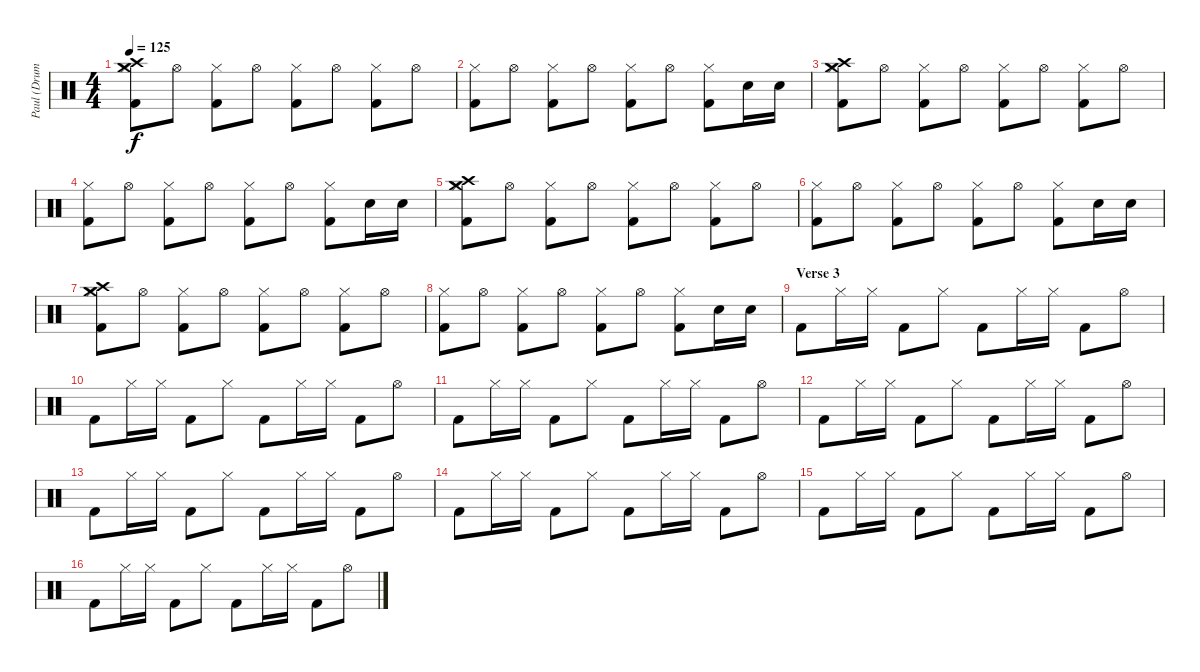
\track ("Paul (Drums)" "Paul (Drum") {instrument percussion}
\staff {score}
\articulation defaults
\ts (4 4)
\tempo 125
\clef neutral
\ks c
("Crash high (hit)" "Crash medium (hit)" "Hi-Hat (closed)" "Kick (hit) 2").8{dy f} "Hi-Hat (open)".8 ("Hi-Hat (closed)" "Kick (hit) 2").8 "Hi-Hat (open)".8 ("Hi-Hat (closed)" "Kick (hit) 2").8 "Hi-Hat (open)".8 ("Hi-Hat (closed)" "Kick (hit) 2").8 "Hi-Hat (open)".8 |
("Hi-Hat (closed)" "Kick (hit) 2").8 "Hi-Hat (open)".8 ("Hi-Hat (closed)" "Kick (hit) 2").8 "Hi-Hat (open)".8 ("Hi-Hat (closed)" "Kick (hit) 2").8 "Hi-Hat (open)".8 ("Hi-Hat (closed)" "Kick (hit) 2").8 "Electric Snare (hit)".16 "Electric Snare (hit)".16 |
("Crash high (hit)" "Crash medium (hit)" "Hi-Hat (closed)" "Kick (hit) 2").8 "Hi-Hat (open)".8 ("Hi-Hat (closed)" "Kick (hit) 2").8 "Hi-Hat (open)".8 ("Hi-Hat (closed)" "Kick (hit) 2").8 "Hi-Hat (open)".8 ("Hi-Hat (closed)" "Kick (hit) 2").8 "Hi-Hat (open)".8 |
("Hi-Hat (closed)" "Kick (hit) 2").8 "Hi-Hat (open)".8 ("Hi-Hat (closed)" "Kick (hit) 2").8 "Hi-Hat (open)".8 ("Hi-Hat (closed)" "Kick (hit) 2").8 "Hi-Hat (open)".8 ("Hi-Hat (closed)" "Kick (hit) 2").8 "Electric Snare (hit)".16 "Electric Snare (hit)".16 |
("Crash high (hit)" "Crash medium (hit)" "Hi-Hat (closed)" "Kick (hit) 2").8 "Hi-Hat (open)".8 ("Hi-Hat (closed)" "Kick (hit) 2").8 "Hi-Hat (open)".8 ("Hi-Hat (closed)" "Kick (hit) 2").8 "Hi-Hat (open)".8 ("Hi-Hat (closed)" "Kick (hit) 2").8 "Hi-Hat (open)".8 |
("Hi-Hat (closed)" "Kick (hit) 2").8 "Hi-Hat (open)".8 ("Hi-Hat (closed)" "Kick (hit) 2").8 "Hi-Hat (open)".8 ("Hi-Hat (closed)" "Kick (hit) 2").8 "Hi-Hat (open)".8 ("Hi-Hat (closed)" "Kick (hit) 2").8 "Electric Snare (hit)".16 "Electric Snare (hit)".16 |
("Crash high (hit)" "Crash medium (hit)" "Hi-Hat (closed)" "Kick (hit) 2").8 "Hi-Hat (open)".8 ("Hi-Hat (closed)" "Kick (hit) 2").8 "Hi-Hat (open)".8 ("Hi-Hat (closed)" "Kick (hit) 2").8 "Hi-Hat (open)".8 ("Hi-Hat (closed)" "Kick (hit) 2").8 "Hi-Hat (open)".8 |
("Hi-Hat (closed)" "Kick (hit) 2").8 "Hi-Hat (open)".8 ("Hi-Hat (closed)" "Kick (hit) 2").8 "Hi-Hat (open)".8 ("Hi-Hat (closed)" "Kick (hit) 2").8 "Hi-Hat (open)".8 ("Hi-Hat (closed)" "Kick (hit) 2").8 "Electric Snare (hit)".16 "Electric Snare (hit)".16 |
\section ("" "Verse 3")
"Kick (hit) 2".8 "Hi-Hat (closed)".16 "Hi-Hat (closed)".16 "Kick (hit) 2".8 "Hi-Hat (closed)".8 "Kick (hit) 2".8 "Hi-Hat (closed)".16 "Hi-Hat (closed)".16 "Kick (hit) 2".8 "Hi-Hat (open)".8 |
"Kick (hit) 2".8 "Hi-Hat (closed)".16 "Hi-Hat (closed)".16 "Kick (hit) 2".8 "Hi-Hat (closed)".8 "Kick (hit) 2".8 "Hi-Hat (closed)".16 "Hi-Hat (closed)".16 "Kick (hit) 2".8 "Hi-Hat (open)".8 |
"Kick (hit) 2".8 "Hi-Hat (closed)".16 "Hi-Hat (closed)".16 "Kick (hit) 2".8 "Hi-Hat (closed)".8 "Kick (hit) 2".8 "Hi-Hat (closed)".16 "Hi-Hat (closed)".16 "Kick (hit) 2".8 "Hi-Hat (open)".8 |
"Kick (hit) 2".8 "Hi-Hat (closed)".16 "Hi-Hat (closed)".16 "Kick (hit) 2".8 "Hi-Hat (closed)".8 "Kick (hit) 2".8 "Hi-Hat (closed)".16 "Hi-Hat (closed)".16 "Kick (hit) 2".8 "Hi-Hat (open)".8 |
"Kick (hit) 2".8 "Hi-Hat (closed)".16 "Hi-Hat (closed)".16 "Kick (hit) 2".8 "Hi-Hat (closed)".8 "Kick (hit) 2".8 "Hi-Hat (closed)".16 "Hi-Hat (closed)".16 "Kick (hit) 2".8 "Hi-Hat (open)".8 |
"Kick (hit) 2".8 "Hi-Hat (closed)".16 "Hi-Hat (closed)".16 "Kick (hit) 2".8 "Hi-Hat (closed)".8 "Kick (hit) 2".8 "Hi-Hat (closed)".16 "Hi-Hat (closed)".16 "Kick (hit) 2".8 "Hi-Hat (open)".8 |
"Kick (hit) 2".8 "Hi-Hat (closed)".16 "Hi-Hat (closed)".16 "Kick (hit) 2".8 "Hi-Hat (closed)".8 "Kick (hit) 2".8 "Hi-Hat (closed)".16 "Hi-Hat (closed)".16 "Kick (hit) 2".8 "Hi-Hat (open)".8 |
"Kick (hit) 2".8 "Hi-Hat (closed)".16 "Hi-Hat (closed)".16 "Kick (hit) 2".8 "Hi-Hat (closed)".8 "Kick (hit) 2".8 "Hi-Hat (closed)".16 "Hi-Hat (closed)".16 "Kick (hit) 2".8 "Hi-Hat (open)".8
